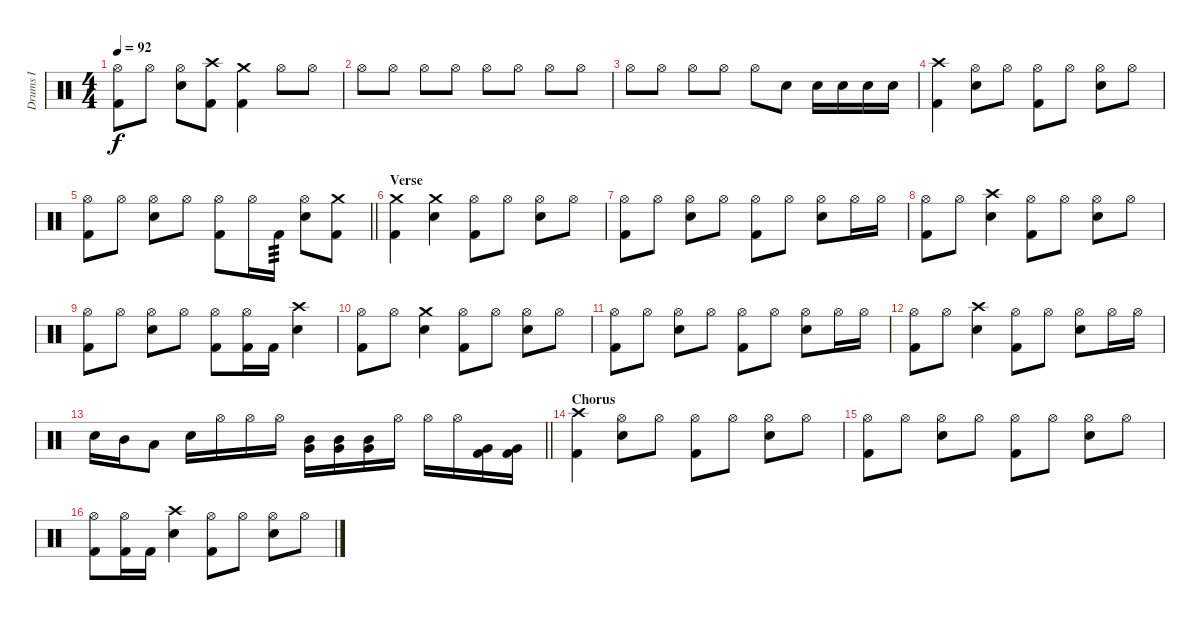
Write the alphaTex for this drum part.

\track ("Drums I" "Drums I") {instrument percussion}
\staff {score}
\articulation defaults
\ts (4 4)
\tempo 92
\clef neutral
\ks c
("Hi-Hat (open)" "Kick (hit) 2").8{dy f} "Hi-Hat (open)".8 ("Hi-Hat (open)" "Electric Snare (hit)").8 ("Crash high (hit)" "Kick (hit) 2").8 ("Crash medium (hit)" "Kick (hit) 2").4 "Hi-Hat (open)".8 "Hi-Hat (open)".8 |
"Hi-Hat (open)".8 "Hi-Hat (open)".8 "Hi-Hat (open)".8 "Hi-Hat (open)".8 "Hi-Hat (open)".8 "Hi-Hat (open)".8 "Hi-Hat (open)".8 "Hi-Hat (open)".8 |
"Hi-Hat (open)".8 "Hi-Hat (open)".8 "Hi-Hat (open)".8 "Hi-Hat (open)".8 "Hi-Hat (open)".8 "Electric Snare (hit)".8 "Electric Snare (hit)".16 "Electric Snare (hit)".16 "Electric Snare (hit)".16 "Electric Snare (hit)".16 |
("Crash high (hit)" "Kick (hit) 2").4 ("Hi-Hat (open)" "Electric Snare (hit)").8 "Hi-Hat (open)".8 ("Hi-Hat (open)" "Kick (hit) 2").8 "Hi-Hat (open)".8 ("Hi-Hat (open)" "Electric Snare (hit)").8 "Hi-Hat (open)".8 |
\barLineRight lightlight
("Hi-Hat (open)" "Kick (hit) 2").8 "Hi-Hat (open)".8 ("Hi-Hat (open)" "Electric Snare (hit)").8 "Hi-Hat (open)".8 ("Hi-Hat (open)" "Kick (hit) 2").8 "Hi-Hat (open)".16 "Kick (hit) 2".16{tp 3} ("Hi-Hat (open)" "Electric Snare (hit)").8 ("Crash medium (hit)" "Kick (hit) 2").8 |
\section ("" "Verse")
("Crash medium (hit)" "Kick (hit) 2").4 ("Crash medium (hit)" "Electric Snare (hit)").4 ("Hi-Hat (open)" "Kick (hit) 2").8 "Hi-Hat (open)".8 ("Hi-Hat (open)" "Electric Snare (hit)").8 "Hi-Hat (open)".8 |
("Hi-Hat (open)" "Kick (hit) 2").8 "Hi-Hat (open)".8 ("Hi-Hat (open)" "Electric Snare (hit)").8 "Hi-Hat (open)".8 ("Hi-Hat (open)" "Kick (hit) 2").8 "Hi-Hat (open)".8 ("Hi-Hat (open)" "Electric Snare (hit)").8 "Hi-Hat (open)".16 "Hi-Hat (open)".16 |
("Hi-Hat (open)" "Kick (hit) 2").8 "Hi-Hat (open)".8 ("Crash high (hit)" "Electric Snare (hit)").4 ("Hi-Hat (open)" "Kick (hit) 2").8 "Hi-Hat (open)".8 ("Hi-Hat (open)" "Electric Snare (hit)").8 "Hi-Hat (open)".8 |
("Hi-Hat (open)" "Kick (hit) 2").8 "Hi-Hat (open)".8 ("Hi-Hat (open)" "Electric Snare (hit)").8 "Hi-Hat (open)".8 ("Hi-Hat (open)" "Kick (hit) 2").8 ("Hi-Hat (open)" "Kick (hit) 2").16 "Kick (hit) 2".16 ("Crash high (hit)" "Electric Snare (hit)").4 |
("Hi-Hat (open)" "Kick (hit) 2").8 "Hi-Hat (open)".8 ("Crash medium (hit)" "Electric Snare (hit)").4 ("Hi-Hat (open)" "Kick (hit) 2").8 "Hi-Hat (open)".8 ("Hi-Hat (open)" "Electric Snare (hit)").8 "Hi-Hat (open)".8 |
("Hi-Hat (open)" "Kick (hit) 2").8 "Hi-Hat (open)".8 ("Hi-Hat (open)" "Electric Snare (hit)").8 "Hi-Hat (open)".8 ("Hi-Hat (open)" "Kick (hit) 2").8 "Hi-Hat (open)".8 ("Hi-Hat (open)" "Electric Snare (hit)").8 "Hi-Hat (open)".16 "Hi-Hat (open)".16 |
("Hi-Hat (open)" "Kick (hit) 2").8 "Hi-Hat (open)".8 ("Crash high (hit)" "Electric Snare (hit)").4 ("Hi-Hat (open)" "Kick (hit) 2").8 "Hi-Hat (open)".8 ("Hi-Hat (open)" "Electric Snare (hit)").8 "Hi-Hat (open)".16 "Hi-Hat (open)".16 |
\barLineRight lightlight "Electric Snare (hit)".16 "Mid Tom (hit)".16 "Low Tom (hit)".8 "Electric Snare (hit)".16 "Hi-Hat (open)".16 "Hi-Hat (open)".16 "Hi-Hat (open)".16
("Mid Tom (hit)" "Very Low Tom (hit)").16 ("Mid Tom (hit)" "Very Low Tom (hit)").16 ("Mid Tom (hit)" "Very Low Tom (hit)").16 "Hi-Hat (open)".16 "Hi-Hat (open)".16 "Hi-Hat (open)".16 ("Very Low Tom (hit)" "Kick (hit) 2").16 ("Very Low Tom (hit)" "Kick (hit) 2").16 |
\section ("" "Chorus")
("Crash high (hit)" "Kick (hit) 2").4 ("Hi-Hat (open)" "Electric Snare (hit)").8 "Hi-Hat (open)".8 ("Hi-Hat (open)" "Kick (hit) 2").8 "Hi-Hat (open)".8 ("Hi-Hat (open)" "Electric Snare (hit)").8 "Hi-Hat (open)".8 |
("Hi-Hat (open)" "Kick (hit) 2").8 "Hi-Hat (open)".8 ("Hi-Hat (open)" "Electric Snare (hit)").8 "Hi-Hat (open)".8 ("Hi-Hat (open)" "Kick (hit) 2").8 "Hi-Hat (open)".8 ("Hi-Hat (open)" "Electric Snare (hit)").8 "Hi-Hat (open)".8 |
("Hi-Hat (open)" "Kick (hit) 2").8 ("Hi-Hat (open)" "Kick (hit) 2").16 "Kick (hit) 2".16 ("Crash high (hit)" "Electric Snare (hit)").4 ("Hi-Hat (open)" "Kick (hit) 2").8 "Hi-Hat (open)".8 ("Hi-Hat (open)" "Electric Snare (hit)").8 "Hi-Hat (open)".8
